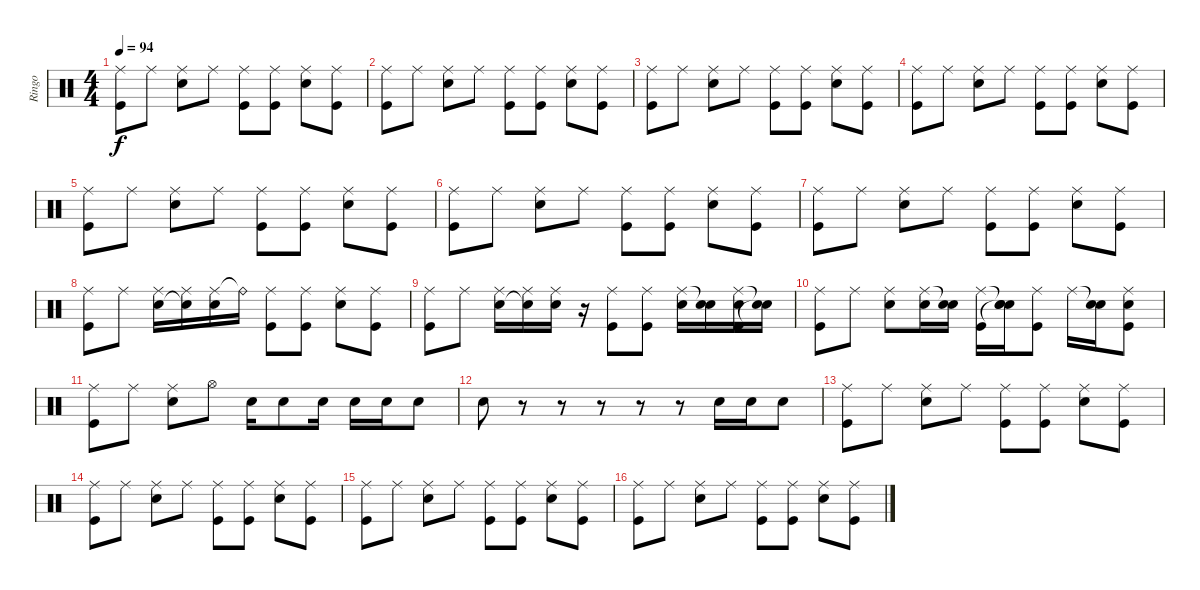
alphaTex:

\track ("Ringo" "Ringo") {instrument percussion}
\staff {score}
\articulation defaults
\ts (4 4)
\tempo 94
\clef neutral
\ks c
("Ride (middle)" "Kick (hit)").8{dy f} "Ride (middle)".8 ("Ride (middle)" "Snare (hit) 2").8 "Ride (middle)".8 ("Ride (middle)" "Kick (hit)").8 ("Ride (middle)" "Kick (hit)").8 ("Ride (middle)" "Snare (hit) 2").8 ("Ride (middle)" "Kick (hit)").8 |
("Ride (middle)" "Kick (hit)").8 "Ride (middle)".8 ("Ride (middle)" "Snare (hit) 2").8 "Ride (middle)".8 ("Ride (middle)" "Kick (hit)").8 ("Ride (middle)" "Kick (hit)").8 ("Ride (middle)" "Snare (hit) 2").8 ("Ride (middle)" "Kick (hit)").8 |
("Ride (middle)" "Kick (hit)").8 "Ride (middle)".8 ("Ride (middle)" "Snare (hit) 2").8 "Ride (middle)".8 ("Ride (middle)" "Kick (hit)").8 ("Ride (middle)" "Kick (hit)").8 ("Ride (middle)" "Snare (hit) 2").8 ("Ride (middle)" "Kick (hit)").8 |
("Ride (middle)" "Kick (hit)").8 "Ride (middle)".8 ("Ride (middle)" "Snare (hit) 2").8 "Ride (middle)".8 ("Ride (middle)" "Kick (hit)").8 ("Ride (middle)" "Kick (hit)").8 ("Ride (middle)" "Snare (hit) 2").8 ("Ride (middle)" "Kick (hit)").8 |
("Ride (middle)" "Kick (hit)").8 "Ride (middle)".8 ("Ride (middle)" "Snare (hit) 2").8 "Ride (middle)".8 ("Ride (middle)" "Kick (hit)").8 ("Ride (middle)" "Kick (hit)").8 ("Ride (middle)" "Snare (hit) 2").8 ("Ride (middle)" "Kick (hit)").8 |
("Ride (middle)" "Kick (hit)").8 "Ride (middle)".8 ("Ride (middle)" "Snare (hit) 2").8 "Ride (middle)".8 ("Ride (middle)" "Kick (hit)").8 ("Ride (middle)" "Kick (hit)").8 ("Ride (middle)" "Snare (hit) 2").8 ("Ride (middle)" "Kick (hit)").8 |
("Ride (middle)" "Kick (hit)").8 "Ride (middle)".8 ("Ride (middle)" "Snare (hit) 2").8 "Ride (middle)".8 ("Ride (middle)" "Kick (hit)").8 ("Ride (middle)" "Kick (hit)").8 ("Ride (middle)" "Snare (hit) 2").8 ("Ride (middle)" "Kick (hit)").8 |
("Ride (middle)" "Kick (hit)").8 "Ride (middle)".8 ("Ride (middle)" "Snare (hit) 2").16 ("Ride (middle)" "Snare (hit)"{t}).16 ("Ride (middle)" "Snare (hit) 2").16 "Ride (bell)"{t}.16 ("Ride (middle)" "Kick (hit)").8 ("Ride (middle)" "Kick (hit)").8 ("Ride (middle)" "Snare (hit) 2").8 ("Ride (middle)" "Kick (hit)").8 |
("Ride (middle)" "Kick (hit)").8 "Ride (middle)".8 ("Ride (middle)" "Snare (hit) 2").16 ("Ride (middle)" "Snare (hit)"{t}).16 ("Ride (middle)" "Snare (hit) 2").16 r.16 ("Ride (middle)" "Kick (hit)").8 ("Ride (middle)" "Kick (hit)").8 ("Ride (middle)" "Snare (hit) 2").16 ("Snare (hit)"{t} "Snare (hit) 2").16 ("Ride (middle)" "Kick (hit)" "Snare (hit) 2").16 ("Snare (hit)"{t} "Snare (hit)"{t}).16 |
("Ride (middle)" "Kick (hit)").8 "Ride (middle)".8 ("Ride (middle)" "Snare (hit) 2").8 ("Ride (middle)" "Snare (hit) 2").16 ("Snare (hit)"{t} "Snare (hit) 2").16 ("Ride (middle)" "Kick (hit)").16 ("Snare (hit)"{t} "Snare (hit)"{t} "Snare (hit) 2").16 ("Ride (middle)" "Kick (hit)").8 "Ride (middle)".16 ("Snare (hit)"{t} "Snare (hit) 2").16 ("Ride (middle)" "Kick (hit)" "Snare (hit) 2").8 |
("Ride (middle)" "Kick (hit)").8 "Ride (middle)".8 ("Ride (middle)" "Snare (hit) 2").8 "Hi-Hat (open)".8 "Snare (hit) 2".16 "Snare (hit) 2".8 "Snare (hit) 2".16 "Snare (hit) 2".16 "Snare (hit) 2".16 "Snare (hit) 2".8 |
"Snare (hit) 2".8 r.8 r.8 r.8 r.8 r.8 "Snare (hit) 2".16 "Snare (hit) 2".16 "Snare (hit) 2".8 |
("Ride (middle)" "Kick (hit)").8 "Ride (middle)".8 ("Ride (middle)" "Snare (hit) 2").8 "Ride (middle)".8 ("Ride (middle)" "Kick (hit)").8 ("Ride (middle)" "Kick (hit)").8 ("Ride (middle)" "Snare (hit) 2").8 ("Ride (middle)" "Kick (hit)").8 |
("Ride (middle)" "Kick (hit)").8 "Ride (middle)".8 ("Ride (middle)" "Snare (hit) 2").8 "Ride (middle)".8 ("Ride (middle)" "Kick (hit)").8 ("Ride (middle)" "Kick (hit)").8 ("Ride (middle)" "Snare (hit) 2").8 ("Ride (middle)" "Kick (hit)").8 |
("Ride (middle)" "Kick (hit)").8 "Ride (middle)".8 ("Ride (middle)" "Snare (hit) 2").8 "Ride (middle)".8 ("Ride (middle)" "Kick (hit)").8 ("Ride (middle)" "Kick (hit)").8 ("Ride (middle)" "Snare (hit) 2").8 ("Ride (middle)" "Kick (hit)").8 |
("Ride (middle)" "Kick (hit)").8 "Ride (middle)".8 ("Ride (middle)" "Snare (hit) 2").8 "Ride (middle)".8 ("Ride (middle)" "Kick (hit)").8 ("Ride (middle)" "Kick (hit)").8 ("Ride (middle)" "Snare (hit) 2").8 ("Ride (middle)" "Kick (hit)").8
